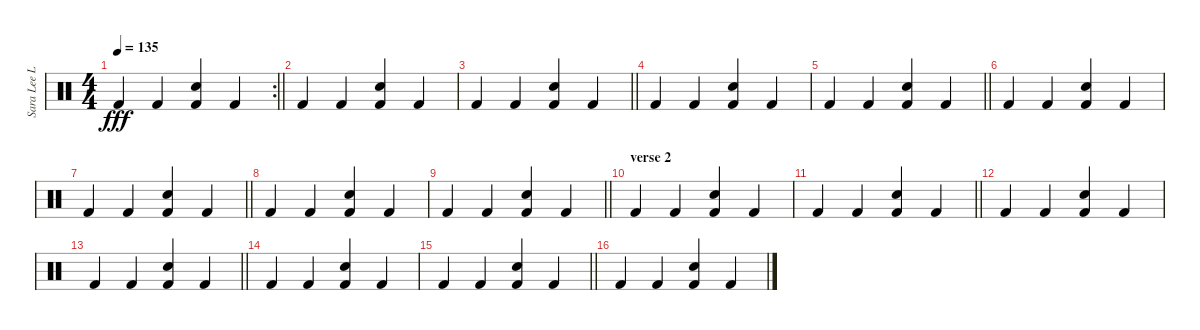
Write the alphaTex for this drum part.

\track ("Sara Lee Lucas" "Sara Lee L") {instrument percussion}
\staff {score}
\articulation defaults
\rc 2
\ts (4 4)
\tempo 135
\clef neutral
\barLineRight lightlight
\ks c "Kick (hit) 2".4{dy fff} "Kick (hit) 2".4
("Snare (hit) 2" "Kick (hit) 2").4 "Kick (hit) 2".4 |
"Kick (hit) 2".4 "Kick (hit) 2".4 ("Snare (hit) 2" "Kick (hit) 2").4 "Kick (hit) 2".4 |
\barLineRight lightlight "Kick (hit) 2".4 "Kick (hit) 2".4
("Snare (hit) 2" "Kick (hit) 2").4 "Kick (hit) 2".4 |
"Kick (hit) 2".4 "Kick (hit) 2".4 ("Snare (hit) 2" "Kick (hit) 2").4 "Kick (hit) 2".4 |
\barLineRight lightlight "Kick (hit) 2".4 "Kick (hit) 2".4
("Snare (hit) 2" "Kick (hit) 2").4 "Kick (hit) 2".4 |
"Kick (hit) 2".4 "Kick (hit) 2".4 ("Snare (hit) 2" "Kick (hit) 2").4 "Kick (hit) 2".4 |
\barLineRight lightlight "Kick (hit) 2".4 "Kick (hit) 2".4
("Snare (hit) 2" "Kick (hit) 2").4 "Kick (hit) 2".4 |
"Kick (hit) 2".4 "Kick (hit) 2".4 ("Snare (hit) 2" "Kick (hit) 2").4 "Kick (hit) 2".4 |
\barLineRight lightlight "Kick (hit) 2".4 "Kick (hit) 2".4
("Snare (hit) 2" "Kick (hit) 2").4 "Kick (hit) 2".4 |
\section ("" "verse 2")
"Kick (hit) 2".4 "Kick (hit) 2".4 ("Snare (hit) 2" "Kick (hit) 2").4 "Kick (hit) 2".4 |
\barLineRight lightlight "Kick (hit) 2".4 "Kick (hit) 2".4
("Snare (hit) 2" "Kick (hit) 2").4 "Kick (hit) 2".4 |
"Kick (hit) 2".4 "Kick (hit) 2".4 ("Snare (hit) 2" "Kick (hit) 2").4 "Kick (hit) 2".4 |
\barLineRight lightlight "Kick (hit) 2".4 "Kick (hit) 2".4
("Snare (hit) 2" "Kick (hit) 2").4 "Kick (hit) 2".4 |
"Kick (hit) 2".4 "Kick (hit) 2".4 ("Snare (hit) 2" "Kick (hit) 2").4 "Kick (hit) 2".4 |
\barLineRight lightlight "Kick (hit) 2".4 "Kick (hit) 2".4
("Snare (hit) 2" "Kick (hit) 2").4 "Kick (hit) 2".4 |
"Kick (hit) 2".4 "Kick (hit) 2".4 ("Snare (hit) 2" "Kick (hit) 2").4 "Kick (hit) 2".4
